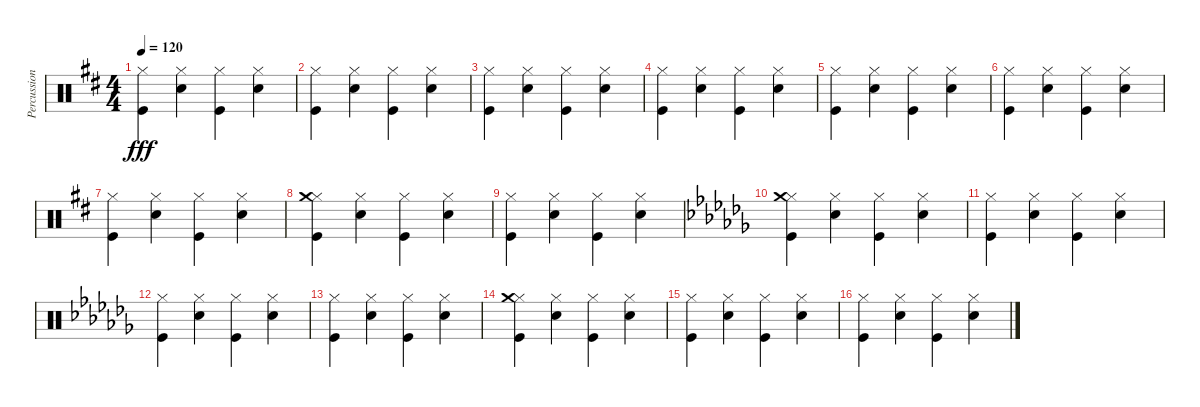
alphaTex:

\track ("Percussion" "Percussion") {instrument percussion}
\staff {score}
\articulation defaults
\ts (4 4)
\tempo 120
\clef neutral
\ks d
("Hi-Hat (closed)" "Kick (hit)").4{dy fff} ("Hi-Hat (closed)" "Snare (hit) 2").4 ("Hi-Hat (closed)" "Kick (hit)").4 ("Hi-Hat (closed)" "Snare (hit) 2").4 |
("Hi-Hat (closed)" "Kick (hit)").4 ("Hi-Hat (closed)" "Snare (hit) 2").4 ("Hi-Hat (closed)" "Kick (hit)").4 ("Hi-Hat (closed)" "Snare (hit) 2").4 |
("Hi-Hat (closed)" "Kick (hit)").4 ("Hi-Hat (closed)" "Snare (hit) 2").4 ("Hi-Hat (closed)" "Kick (hit)").4 ("Hi-Hat (closed)" "Snare (hit) 2").4 |
("Hi-Hat (closed)" "Kick (hit)").4 ("Hi-Hat (closed)" "Snare (hit) 2").4 ("Hi-Hat (closed)" "Kick (hit)").4 ("Hi-Hat (closed)" "Snare (hit) 2").4 |
("Hi-Hat (closed)" "Kick (hit)").4 ("Hi-Hat (closed)" "Snare (hit) 2").4 ("Hi-Hat (closed)" "Kick (hit)").4 ("Hi-Hat (closed)" "Snare (hit) 2").4 |
("Hi-Hat (closed)" "Kick (hit)").4 ("Hi-Hat (closed)" "Snare (hit) 2").4 ("Hi-Hat (closed)" "Kick (hit)").4 ("Hi-Hat (closed)" "Snare (hit) 2").4 |
("Hi-Hat (closed)" "Kick (hit)").4 ("Hi-Hat (closed)" "Snare (hit) 2").4 ("Hi-Hat (closed)" "Kick (hit)").4 ("Hi-Hat (closed)" "Snare (hit) 2").4 |
("Hi-Hat (closed)" "Kick (hit)" "Crash medium (hit)").4 ("Hi-Hat (closed)" "Snare (hit) 2").4 ("Hi-Hat (closed)" "Kick (hit)").4 ("Hi-Hat (closed)" "Snare (hit) 2").4 |
("Hi-Hat (closed)" "Kick (hit)").4 ("Hi-Hat (closed)" "Snare (hit) 2").4 ("Hi-Hat (closed)" "Kick (hit)").4 ("Hi-Hat (closed)" "Snare (hit) 2").4 |
\ks abminor
("Hi-Hat (closed)" "Kick (hit)" "Crash medium (hit)").4 ("Hi-Hat (closed)" "Snare (hit) 2").4 ("Hi-Hat (closed)" "Kick (hit)").4 ("Hi-Hat (closed)" "Snare (hit) 2").4 |
("Hi-Hat (closed)" "Kick (hit)").4 ("Hi-Hat (closed)" "Snare (hit) 2").4 ("Hi-Hat (closed)" "Kick (hit)").4 ("Hi-Hat (closed)" "Snare (hit) 2").4 |
("Hi-Hat (closed)" "Kick (hit)").4 ("Hi-Hat (closed)" "Snare (hit) 2").4 ("Hi-Hat (closed)" "Kick (hit)").4 ("Hi-Hat (closed)" "Snare (hit) 2").4 |
("Hi-Hat (closed)" "Kick (hit)").4 ("Hi-Hat (closed)" "Snare (hit) 2").4 ("Hi-Hat (closed)" "Kick (hit)").4 ("Hi-Hat (closed)" "Snare (hit) 2").4 |
("Hi-Hat (closed)" "Kick (hit)" "Crash medium (hit)").4 ("Hi-Hat (closed)" "Snare (hit) 2").4 ("Hi-Hat (closed)" "Kick (hit)").4 ("Hi-Hat (closed)" "Snare (hit) 2").4 |
("Hi-Hat (closed)" "Kick (hit)").4 ("Hi-Hat (closed)" "Snare (hit) 2").4 ("Hi-Hat (closed)" "Kick (hit)").4 ("Hi-Hat (closed)" "Snare (hit) 2").4 |
("Hi-Hat (closed)" "Kick (hit)").4 ("Hi-Hat (closed)" "Snare (hit) 2").4 ("Hi-Hat (closed)" "Kick (hit)").4 ("Hi-Hat (closed)" "Snare (hit) 2").4
